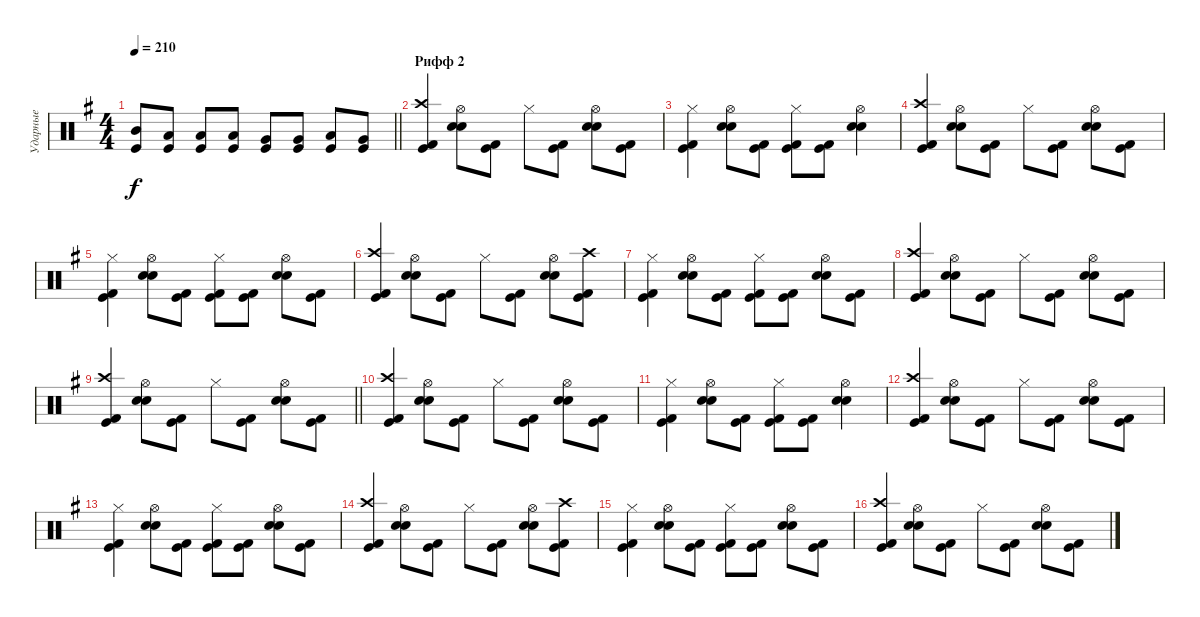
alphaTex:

\track ("Ударные" "Ударные") {instrument percussion}
\staff {score}
\articulation defaults
\ts (4 4)
\tempo 210
\clef neutral
\barLineRight lightlight
\ks g
("Mid Tom (hit)" "Kick (hit)").8{dy f} ("Low Tom (hit)" "Kick (hit)").8 ("Low Tom (hit)" "Kick (hit)").8 ("Low Tom (hit)" "Kick (hit)").8 ("Very Low Tom (hit)" "Kick (hit)").8 ("Very Low Tom (hit)" "Kick (hit)").8 ("Low Tom (hit)" "Kick (hit)").8 ("Very Low Tom (hit)" "Kick (hit)").8 |
\section ("" "Рифф 2")
("Crash high (hit)" "Kick (hit) 2" "Kick (hit)").4 ("Hi-Hat (open)" "Electric Snare (hit)" "Snare (hit) 2").8 ("Kick (hit) 2" "Kick (hit)").8 "Hi-Hat (closed)".8 ("Kick (hit) 2" "Kick (hit)").8 ("Hi-Hat (open)" "Electric Snare (hit)" "Snare (hit) 2").8 ("Kick (hit) 2" "Kick (hit)").8 |
("Hi-Hat (closed)" "Kick (hit) 2" "Kick (hit)").4 ("Hi-Hat (open)" "Electric Snare (hit)" "Snare (hit) 2").8 ("Kick (hit) 2" "Kick (hit)").8 ("Hi-Hat (closed)" "Kick (hit) 2" "Kick (hit)").8 ("Kick (hit) 2" "Kick (hit)").8 ("Hi-Hat (open)" "Electric Snare (hit)" "Snare (hit) 2").4 |
("Crash high (hit)" "Kick (hit) 2" "Kick (hit)").4 ("Hi-Hat (open)" "Electric Snare (hit)" "Snare (hit) 2").8 ("Kick (hit) 2" "Kick (hit)").8 "Hi-Hat (closed)".8 ("Kick (hit) 2" "Kick (hit)").8 ("Hi-Hat (open)" "Electric Snare (hit)" "Snare (hit) 2").8 ("Kick (hit) 2" "Kick (hit)").8 |
("Hi-Hat (closed)" "Kick (hit) 2" "Kick (hit)").4 ("Hi-Hat (open)" "Electric Snare (hit)" "Snare (hit) 2").8 ("Kick (hit) 2" "Kick (hit)").8 ("Hi-Hat (closed)" "Kick (hit) 2" "Kick (hit)").8 ("Kick (hit) 2" "Kick (hit)").8 ("Hi-Hat (open)" "Electric Snare (hit)" "Snare (hit) 2").8 ("Kick (hit) 2" "Kick (hit)").8 |
("Crash high (hit)" "Kick (hit) 2" "Kick (hit)").4 ("Hi-Hat (open)" "Electric Snare (hit)" "Snare (hit) 2").8 ("Kick (hit) 2" "Kick (hit)").8 "Hi-Hat (closed)".8 ("Kick (hit) 2" "Kick (hit)").8 ("Hi-Hat (open)" "Electric Snare (hit)" "Snare (hit) 2").8 ("Crash high (hit)" "Kick (hit) 2" "Kick (hit)").8 |
("Hi-Hat (closed)" "Kick (hit) 2" "Kick (hit)").4 ("Hi-Hat (open)" "Electric Snare (hit)" "Snare (hit) 2").8 ("Kick (hit) 2" "Kick (hit)").8 ("Hi-Hat (closed)" "Kick (hit) 2" "Kick (hit)").8 ("Kick (hit) 2" "Kick (hit)").8 ("Hi-Hat (open)" "Electric Snare (hit)" "Snare (hit) 2").8 ("Kick (hit) 2" "Kick (hit)").8 |
("Crash high (hit)" "Kick (hit) 2" "Kick (hit)").4 ("Hi-Hat (open)" "Electric Snare (hit)" "Snare (hit) 2").8 ("Kick (hit) 2" "Kick (hit)").8 "Hi-Hat (closed)".8 ("Kick (hit) 2" "Kick (hit)").8 ("Hi-Hat (open)" "Electric Snare (hit)" "Snare (hit) 2").8 ("Kick (hit) 2" "Kick (hit)").8 |
\barLineRight lightlight
("Crash high (hit)" "Kick (hit) 2" "Kick (hit)").4 ("Hi-Hat (open)" "Electric Snare (hit)" "Snare (hit) 2").8 ("Kick (hit) 2" "Kick (hit)").8 "Hi-Hat (closed)".8 ("Kick (hit) 2" "Kick (hit)").8 ("Hi-Hat (open)" "Electric Snare (hit)" "Snare (hit) 2").8 ("Kick (hit) 2" "Kick (hit)").8 |
("Crash high (hit)" "Kick (hit) 2" "Kick (hit)").4 ("Hi-Hat (open)" "Electric Snare (hit)" "Snare (hit) 2").8 ("Kick (hit) 2" "Kick (hit)").8 "Hi-Hat (closed)".8 ("Kick (hit) 2" "Kick (hit)").8 ("Hi-Hat (open)" "Electric Snare (hit)" "Snare (hit) 2").8 ("Kick (hit) 2" "Kick (hit)").8 |
("Hi-Hat (closed)" "Kick (hit) 2" "Kick (hit)").4 ("Hi-Hat (open)" "Electric Snare (hit)" "Snare (hit) 2").8 ("Kick (hit) 2" "Kick (hit)").8 ("Hi-Hat (closed)" "Kick (hit) 2" "Kick (hit)").8 ("Kick (hit) 2" "Kick (hit)").8 ("Hi-Hat (open)" "Electric Snare (hit)" "Snare (hit) 2").4 |
("Crash high (hit)" "Kick (hit) 2" "Kick (hit)").4 ("Hi-Hat (open)" "Electric Snare (hit)" "Snare (hit) 2").8 ("Kick (hit) 2" "Kick (hit)").8 "Hi-Hat (closed)".8 ("Kick (hit) 2" "Kick (hit)").8 ("Hi-Hat (open)" "Electric Snare (hit)" "Snare (hit) 2").8 ("Kick (hit) 2" "Kick (hit)").8 |
("Hi-Hat (closed)" "Kick (hit) 2" "Kick (hit)").4 ("Hi-Hat (open)" "Electric Snare (hit)" "Snare (hit) 2").8 ("Kick (hit) 2" "Kick (hit)").8 ("Hi-Hat (closed)" "Kick (hit) 2" "Kick (hit)").8 ("Kick (hit) 2" "Kick (hit)").8 ("Hi-Hat (open)" "Electric Snare (hit)" "Snare (hit) 2").8 ("Kick (hit) 2" "Kick (hit)").8 |
("Crash high (hit)" "Kick (hit) 2" "Kick (hit)").4 ("Hi-Hat (open)" "Electric Snare (hit)" "Snare (hit) 2").8 ("Kick (hit) 2" "Kick (hit)").8 "Hi-Hat (closed)".8 ("Kick (hit) 2" "Kick (hit)").8 ("Hi-Hat (open)" "Electric Snare (hit)" "Snare (hit) 2").8 ("Crash high (hit)" "Kick (hit) 2" "Kick (hit)").8 |
("Hi-Hat (closed)" "Kick (hit) 2" "Kick (hit)").4 ("Hi-Hat (open)" "Electric Snare (hit)" "Snare (hit) 2").8 ("Kick (hit) 2" "Kick (hit)").8 ("Hi-Hat (closed)" "Kick (hit) 2" "Kick (hit)").8 ("Kick (hit) 2" "Kick (hit)").8 ("Hi-Hat (open)" "Electric Snare (hit)" "Snare (hit) 2").8 ("Kick (hit) 2" "Kick (hit)").8 |
("Crash high (hit)" "Kick (hit) 2" "Kick (hit)").4 ("Hi-Hat (open)" "Electric Snare (hit)" "Snare (hit) 2").8 ("Kick (hit) 2" "Kick (hit)").8 "Hi-Hat (closed)".8 ("Kick (hit) 2" "Kick (hit)").8 ("Hi-Hat (open)" "Electric Snare (hit)" "Snare (hit) 2").8 ("Kick (hit) 2" "Kick (hit)").8
